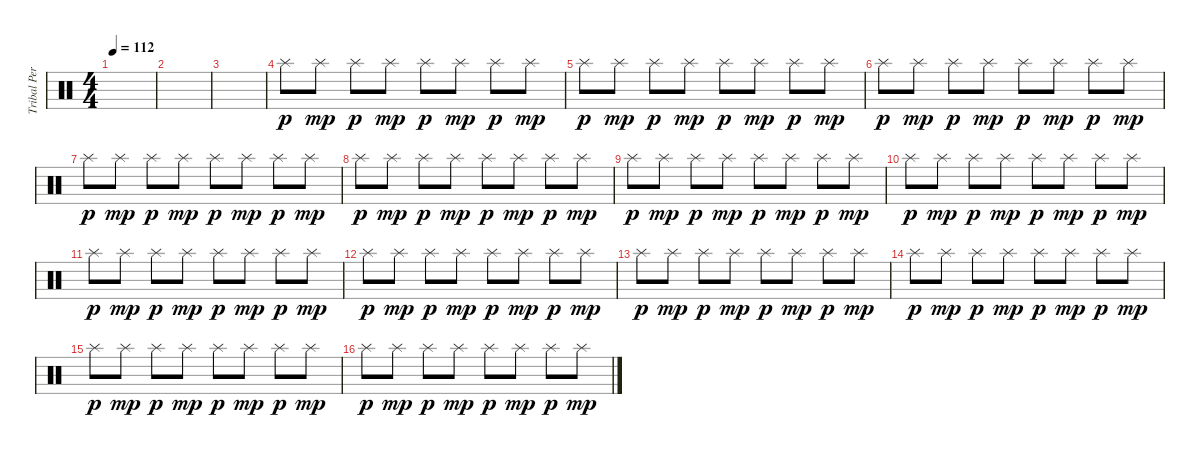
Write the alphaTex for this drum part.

\track ("Tribal Percussion" "Tribal Per") {instrument percussion}
\staff {score}
\articulation defaults
\ts (4 4)
\tempo 112
\clef neutral
\ks c
|
|
|
"Splash (hit)".8{dy p} "Splash (hit)".8{dy mp} "Splash (hit)".8{dy p} "Splash (hit)".8{dy mp} "Splash (hit)".8{dy p} "Splash (hit)".8{dy mp} "Splash (hit)".8{dy p} "Splash (hit)".8{dy mp} |
"Splash (hit)".8{dy p} "Splash (hit)".8{dy mp} "Splash (hit)".8{dy p} "Splash (hit)".8{dy mp} "Splash (hit)".8{dy p} "Splash (hit)".8{dy mp} "Splash (hit)".8{dy p} "Splash (hit)".8{dy mp} |
"Splash (hit)".8{dy p} "Splash (hit)".8{dy mp} "Splash (hit)".8{dy p} "Splash (hit)".8{dy mp} "Splash (hit)".8{dy p} "Splash (hit)".8{dy mp} "Splash (hit)".8{dy p} "Splash (hit)".8{dy mp} |
"Splash (hit)".8{dy p} "Splash (hit)".8{dy mp} "Splash (hit)".8{dy p} "Splash (hit)".8{dy mp} "Splash (hit)".8{dy p} "Splash (hit)".8{dy mp} "Splash (hit)".8{dy p} "Splash (hit)".8{dy mp} |
"Splash (hit)".8{dy p} "Splash (hit)".8{dy mp} "Splash (hit)".8{dy p} "Splash (hit)".8{dy mp} "Splash (hit)".8{dy p} "Splash (hit)".8{dy mp} "Splash (hit)".8{dy p} "Splash (hit)".8{dy mp} |
"Splash (hit)".8{dy p} "Splash (hit)".8{dy mp} "Splash (hit)".8{dy p} "Splash (hit)".8{dy mp} "Splash (hit)".8{dy p} "Splash (hit)".8{dy mp} "Splash (hit)".8{dy p} "Splash (hit)".8{dy mp} |
"Splash (hit)".8{dy p} "Splash (hit)".8{dy mp} "Splash (hit)".8{dy p} "Splash (hit)".8{dy mp} "Splash (hit)".8{dy p} "Splash (hit)".8{dy mp} "Splash (hit)".8{dy p} "Splash (hit)".8{dy mp} |
"Splash (hit)".8{dy p} "Splash (hit)".8{dy mp} "Splash (hit)".8{dy p} "Splash (hit)".8{dy mp} "Splash (hit)".8{dy p} "Splash (hit)".8{dy mp} "Splash (hit)".8{dy p} "Splash (hit)".8{dy mp} |
"Splash (hit)".8{dy p} "Splash (hit)".8{dy mp} "Splash (hit)".8{dy p} "Splash (hit)".8{dy mp} "Splash (hit)".8{dy p} "Splash (hit)".8{dy mp} "Splash (hit)".8{dy p} "Splash (hit)".8{dy mp} |
"Splash (hit)".8{dy p} "Splash (hit)".8{dy mp} "Splash (hit)".8{dy p} "Splash (hit)".8{dy mp} "Splash (hit)".8{dy p} "Splash (hit)".8{dy mp} "Splash (hit)".8{dy p} "Splash (hit)".8{dy mp} |
"Splash (hit)".8{dy p} "Splash (hit)".8{dy mp} "Splash (hit)".8{dy p} "Splash (hit)".8{dy mp} "Splash (hit)".8{dy p} "Splash (hit)".8{dy mp} "Splash (hit)".8{dy p} "Splash (hit)".8{dy mp} |
"Splash (hit)".8{dy p} "Splash (hit)".8{dy mp} "Splash (hit)".8{dy p} "Splash (hit)".8{dy mp} "Splash (hit)".8{dy p} "Splash (hit)".8{dy mp} "Splash (hit)".8{dy p} "Splash (hit)".8{dy mp} |
"Splash (hit)".8{dy p} "Splash (hit)".8{dy mp} "Splash (hit)".8{dy p} "Splash (hit)".8{dy mp} "Splash (hit)".8{dy p} "Splash (hit)".8{dy mp} "Splash (hit)".8{dy p} "Splash (hit)".8{dy mp}
